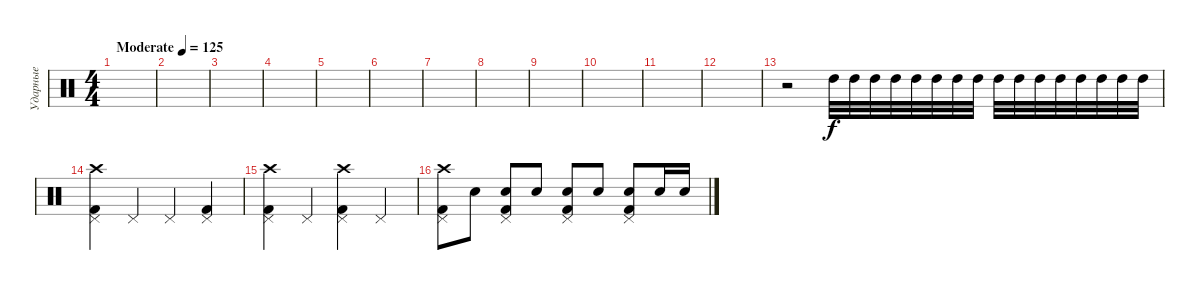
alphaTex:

\track ("Ударные" "Ударные") {instrument percussion}
\staff {score}
\articulation defaults
\ts (4 4)
\tempo (125 "Moderate")
\clef neutral
\ks c
|
|
|
|
|
|
|
|
|
|
|
|
r.2 "High Tom (hit)".32 "High Tom (hit)".32 "High Tom (hit)".32 "High Tom (hit)".32 "High Tom (hit)".32 "High Tom (hit)".32 "High Tom (hit)".32 "High Tom (hit)".32 "High Tom (hit)".32 "High Tom (hit)".32 "High Tom (hit)".32 "High Tom (hit)".32 "High Tom (hit)".32 "High Tom (hit)".32 "High Tom (hit)".32 "High Tom (hit)".32 |
("Kick (hit) 2" "Pedal Hi-Hat (hit)" "Crash high (hit)").4 "Pedal Hi-Hat (hit)".4 "Pedal Hi-Hat (hit)".4 ("Kick (hit) 2" "Pedal Hi-Hat (hit)").4 |
("Kick (hit) 2" "Pedal Hi-Hat (hit)" "Crash high (hit)").4 "Pedal Hi-Hat (hit)".4 ("Kick (hit) 2" "Pedal Hi-Hat (hit)" "Crash high (hit)").4 "Pedal Hi-Hat (hit)".4 |
("Kick (hit) 2" "Pedal Hi-Hat (hit)" "Crash high (hit)").8 "Snare (hit) 2".8 ("Kick (hit) 2" "Pedal Hi-Hat (hit)" "Snare (hit) 2").8 "Snare (hit) 2".8 ("Kick (hit) 2" "Pedal Hi-Hat (hit)" "Snare (hit) 2").8 "Snare (hit) 2".8 ("Kick (hit) 2" "Pedal Hi-Hat (hit)" "Snare (hit) 2").8 "Snare (hit) 2".16 "Snare (hit) 2".16
